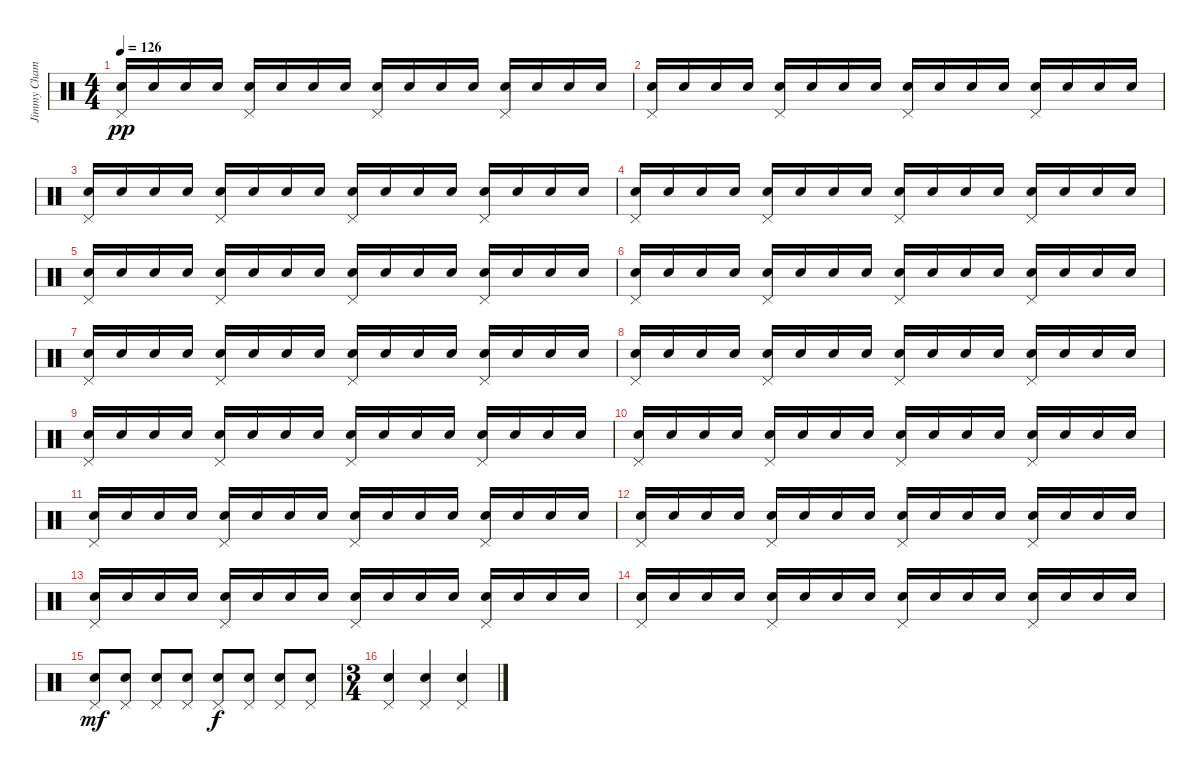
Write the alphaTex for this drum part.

\track ("Jimmy Chamberlain" "Jimmy Cham") {instrument percussion}
\staff {score}
\articulation defaults
\ts (4 4)
\tempo 126
\clef neutral
\ks c
("Pedal Hi-Hat (hit)" "Snare (hit) 2").16{dy pp} "Snare (hit) 2".16 "Snare (hit) 2".16 "Snare (hit) 2".16 ("Pedal Hi-Hat (hit)" "Snare (hit) 2").16 "Snare (hit) 2".16 "Snare (hit) 2".16 "Snare (hit) 2".16 ("Pedal Hi-Hat (hit)" "Snare (hit) 2").16 "Snare (hit) 2".16 "Snare (hit) 2".16 "Snare (hit) 2".16 ("Pedal Hi-Hat (hit)" "Snare (hit) 2").16 "Snare (hit) 2".16 "Snare (hit) 2".16 "Snare (hit) 2".16 |
("Pedal Hi-Hat (hit)" "Snare (hit) 2").16 "Snare (hit) 2".16 "Snare (hit) 2".16 "Snare (hit) 2".16 ("Pedal Hi-Hat (hit)" "Snare (hit) 2").16 "Snare (hit) 2".16 "Snare (hit) 2".16 "Snare (hit) 2".16 ("Pedal Hi-Hat (hit)" "Snare (hit) 2").16 "Snare (hit) 2".16 "Snare (hit) 2".16 "Snare (hit) 2".16 ("Pedal Hi-Hat (hit)" "Snare (hit) 2").16 "Snare (hit) 2".16 "Snare (hit) 2".16 "Snare (hit) 2".16 |
("Pedal Hi-Hat (hit)" "Snare (hit) 2").16 "Snare (hit) 2".16 "Snare (hit) 2".16 "Snare (hit) 2".16 ("Pedal Hi-Hat (hit)" "Snare (hit) 2").16 "Snare (hit) 2".16 "Snare (hit) 2".16 "Snare (hit) 2".16 ("Pedal Hi-Hat (hit)" "Snare (hit) 2").16 "Snare (hit) 2".16 "Snare (hit) 2".16 "Snare (hit) 2".16 ("Pedal Hi-Hat (hit)" "Snare (hit) 2").16 "Snare (hit) 2".16 "Snare (hit) 2".16 "Snare (hit) 2".16 |
("Pedal Hi-Hat (hit)" "Snare (hit) 2").16 "Snare (hit) 2".16 "Snare (hit) 2".16 "Snare (hit) 2".16 ("Pedal Hi-Hat (hit)" "Snare (hit) 2").16 "Snare (hit) 2".16 "Snare (hit) 2".16 "Snare (hit) 2".16 ("Pedal Hi-Hat (hit)" "Snare (hit) 2").16 "Snare (hit) 2".16 "Snare (hit) 2".16 "Snare (hit) 2".16 ("Pedal Hi-Hat (hit)" "Snare (hit) 2").16 "Snare (hit) 2".16 "Snare (hit) 2".16 "Snare (hit) 2".16 |
("Pedal Hi-Hat (hit)" "Snare (hit) 2").16 "Snare (hit) 2".16 "Snare (hit) 2".16 "Snare (hit) 2".16 ("Pedal Hi-Hat (hit)" "Snare (hit) 2").16 "Snare (hit) 2".16 "Snare (hit) 2".16 "Snare (hit) 2".16 ("Pedal Hi-Hat (hit)" "Snare (hit) 2").16 "Snare (hit) 2".16 "Snare (hit) 2".16 "Snare (hit) 2".16 ("Pedal Hi-Hat (hit)" "Snare (hit) 2").16 "Snare (hit) 2".16 "Snare (hit) 2".16 "Snare (hit) 2".16 |
("Pedal Hi-Hat (hit)" "Snare (hit) 2").16 "Snare (hit) 2".16 "Snare (hit) 2".16 "Snare (hit) 2".16 ("Pedal Hi-Hat (hit)" "Snare (hit) 2").16 "Snare (hit) 2".16 "Snare (hit) 2".16 "Snare (hit) 2".16 ("Pedal Hi-Hat (hit)" "Snare (hit) 2").16 "Snare (hit) 2".16 "Snare (hit) 2".16 "Snare (hit) 2".16 ("Pedal Hi-Hat (hit)" "Snare (hit) 2").16 "Snare (hit) 2".16 "Snare (hit) 2".16 "Snare (hit) 2".16 |
("Pedal Hi-Hat (hit)" "Snare (hit) 2").16 "Snare (hit) 2".16 "Snare (hit) 2".16 "Snare (hit) 2".16 ("Pedal Hi-Hat (hit)" "Snare (hit) 2").16 "Snare (hit) 2".16 "Snare (hit) 2".16 "Snare (hit) 2".16 ("Pedal Hi-Hat (hit)" "Snare (hit) 2").16 "Snare (hit) 2".16 "Snare (hit) 2".16 "Snare (hit) 2".16 ("Pedal Hi-Hat (hit)" "Snare (hit) 2").16 "Snare (hit) 2".16 "Snare (hit) 2".16 "Snare (hit) 2".16 |
("Pedal Hi-Hat (hit)" "Snare (hit) 2").16 "Snare (hit) 2".16 "Snare (hit) 2".16 "Snare (hit) 2".16 ("Pedal Hi-Hat (hit)" "Snare (hit) 2").16 "Snare (hit) 2".16 "Snare (hit) 2".16 "Snare (hit) 2".16 ("Pedal Hi-Hat (hit)" "Snare (hit) 2").16 "Snare (hit) 2".16 "Snare (hit) 2".16 "Snare (hit) 2".16 ("Pedal Hi-Hat (hit)" "Snare (hit) 2").16 "Snare (hit) 2".16 "Snare (hit) 2".16 "Snare (hit) 2".16 |
("Pedal Hi-Hat (hit)" "Snare (hit) 2").16 "Snare (hit) 2".16 "Snare (hit) 2".16 "Snare (hit) 2".16 ("Pedal Hi-Hat (hit)" "Snare (hit) 2").16 "Snare (hit) 2".16 "Snare (hit) 2".16 "Snare (hit) 2".16 ("Pedal Hi-Hat (hit)" "Snare (hit) 2").16 "Snare (hit) 2".16 "Snare (hit) 2".16 "Snare (hit) 2".16 ("Pedal Hi-Hat (hit)" "Snare (hit) 2").16 "Snare (hit) 2".16 "Snare (hit) 2".16 "Snare (hit) 2".16 |
("Pedal Hi-Hat (hit)" "Snare (hit) 2").16 "Snare (hit) 2".16 "Snare (hit) 2".16 "Snare (hit) 2".16 ("Pedal Hi-Hat (hit)" "Snare (hit) 2").16 "Snare (hit) 2".16 "Snare (hit) 2".16 "Snare (hit) 2".16 ("Pedal Hi-Hat (hit)" "Snare (hit) 2").16 "Snare (hit) 2".16 "Snare (hit) 2".16 "Snare (hit) 2".16 ("Pedal Hi-Hat (hit)" "Snare (hit) 2").16 "Snare (hit) 2".16 "Snare (hit) 2".16 "Snare (hit) 2".16 |
("Pedal Hi-Hat (hit)" "Snare (hit) 2").16 "Snare (hit) 2".16 "Snare (hit) 2".16 "Snare (hit) 2".16 ("Pedal Hi-Hat (hit)" "Snare (hit) 2").16 "Snare (hit) 2".16 "Snare (hit) 2".16 "Snare (hit) 2".16 ("Pedal Hi-Hat (hit)" "Snare (hit) 2").16 "Snare (hit) 2".16 "Snare (hit) 2".16 "Snare (hit) 2".16 ("Pedal Hi-Hat (hit)" "Snare (hit) 2").16 "Snare (hit) 2".16 "Snare (hit) 2".16 "Snare (hit) 2".16 |
("Pedal Hi-Hat (hit)" "Snare (hit) 2").16 "Snare (hit) 2".16 "Snare (hit) 2".16 "Snare (hit) 2".16 ("Pedal Hi-Hat (hit)" "Snare (hit) 2").16 "Snare (hit) 2".16 "Snare (hit) 2".16 "Snare (hit) 2".16 ("Pedal Hi-Hat (hit)" "Snare (hit) 2").16 "Snare (hit) 2".16 "Snare (hit) 2".16 "Snare (hit) 2".16 ("Pedal Hi-Hat (hit)" "Snare (hit) 2").16 "Snare (hit) 2".16 "Snare (hit) 2".16 "Snare (hit) 2".16 |
("Pedal Hi-Hat (hit)" "Snare (hit) 2").16 "Snare (hit) 2".16 "Snare (hit) 2".16 "Snare (hit) 2".16 ("Pedal Hi-Hat (hit)" "Snare (hit) 2").16 "Snare (hit) 2".16 "Snare (hit) 2".16 "Snare (hit) 2".16 ("Pedal Hi-Hat (hit)" "Snare (hit) 2").16 "Snare (hit) 2".16 "Snare (hit) 2".16 "Snare (hit) 2".16 ("Pedal Hi-Hat (hit)" "Snare (hit) 2").16 "Snare (hit) 2".16 "Snare (hit) 2".16 "Snare (hit) 2".16 |
("Pedal Hi-Hat (hit)" "Snare (hit) 2").16 "Snare (hit) 2".16 "Snare (hit) 2".16 "Snare (hit) 2".16 ("Pedal Hi-Hat (hit)" "Snare (hit) 2").16 "Snare (hit) 2".16 "Snare (hit) 2".16 "Snare (hit) 2".16 ("Pedal Hi-Hat (hit)" "Snare (hit) 2").16 "Snare (hit) 2".16 "Snare (hit) 2".16 "Snare (hit) 2".16 ("Pedal Hi-Hat (hit)" "Snare (hit) 2").16 "Snare (hit) 2".16 "Snare (hit) 2".16 "Snare (hit) 2".16 |
("Pedal Hi-Hat (hit)" "Snare (hit) 2").8{dy mf} ("Pedal Hi-Hat (hit)" "Snare (hit) 2").8 ("Pedal Hi-Hat (hit)" "Snare (hit) 2").8 ("Pedal Hi-Hat (hit)" "Snare (hit) 2").8 ("Pedal Hi-Hat (hit)" "Snare (hit) 2").8{dy f} ("Pedal Hi-Hat (hit)" "Snare (hit) 2").8 ("Pedal Hi-Hat (hit)" "Snare (hit) 2").8 ("Pedal Hi-Hat (hit)" "Snare (hit) 2").8 |
\ts (3 4)
("Pedal Hi-Hat (hit)" "Snare (hit) 2").4 ("Pedal Hi-Hat (hit)" "Snare (hit) 2").4 ("Pedal Hi-Hat (hit)" "Snare (hit) 2").4
